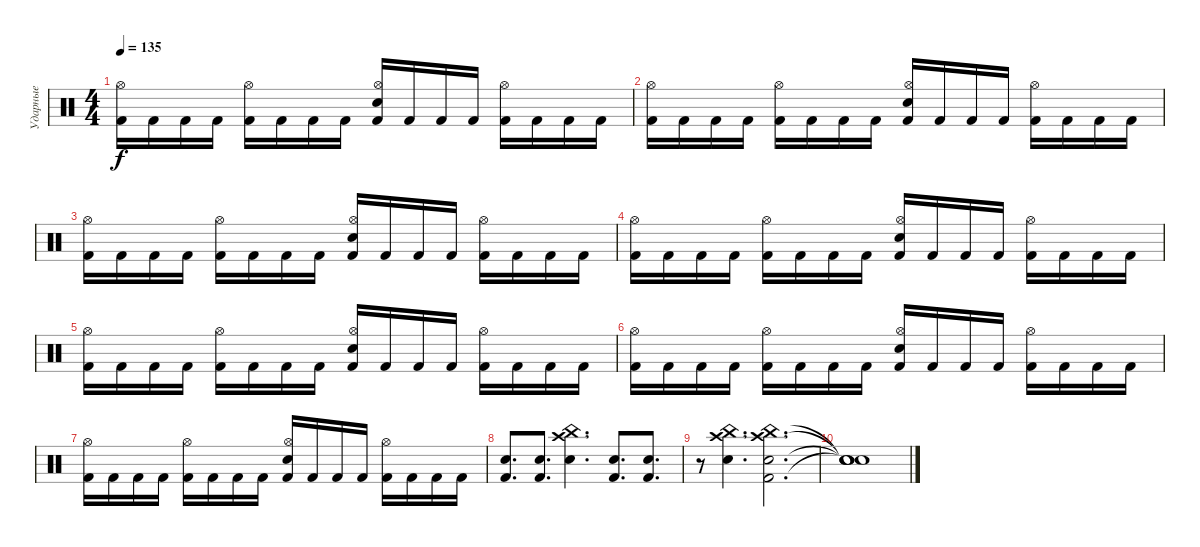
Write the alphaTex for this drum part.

\track ("Ударные" "Ударные") {instrument percussion}
\staff {score}
\articulation defaults
\ts (4 4)
\tempo 135
\clef neutral
\ks c
("Kick (hit) 2" "Hi-Hat (open)").16{dy f} "Kick (hit) 2".16 "Kick (hit) 2".16 "Kick (hit) 2".16 ("Kick (hit) 2" "Hi-Hat (open)").16 "Kick (hit) 2".16 "Kick (hit) 2".16 "Kick (hit) 2".16 ("Kick (hit) 2" "Electric Snare (hit)" "Hi-Hat (open)").16 "Kick (hit) 2".16 "Kick (hit) 2".16 "Kick (hit) 2".16 ("Kick (hit) 2" "Hi-Hat (open)").16 "Kick (hit) 2".16 "Kick (hit) 2".16 "Kick (hit) 2".16 |
("Kick (hit) 2" "Hi-Hat (open)").16 "Kick (hit) 2".16 "Kick (hit) 2".16 "Kick (hit) 2".16 ("Kick (hit) 2" "Hi-Hat (open)").16 "Kick (hit) 2".16 "Kick (hit) 2".16 "Kick (hit) 2".16 ("Kick (hit) 2" "Electric Snare (hit)" "Hi-Hat (open)").16 "Kick (hit) 2".16 "Kick (hit) 2".16 "Kick (hit) 2".16 ("Kick (hit) 2" "Hi-Hat (open)").16 "Kick (hit) 2".16 "Kick (hit) 2".16 "Kick (hit) 2".16 |
("Kick (hit) 2" "Hi-Hat (open)").16 "Kick (hit) 2".16 "Kick (hit) 2".16 "Kick (hit) 2".16 ("Kick (hit) 2" "Hi-Hat (open)").16 "Kick (hit) 2".16 "Kick (hit) 2".16 "Kick (hit) 2".16 ("Kick (hit) 2" "Electric Snare (hit)" "Hi-Hat (open)").16 "Kick (hit) 2".16 "Kick (hit) 2".16 "Kick (hit) 2".16 ("Kick (hit) 2" "Hi-Hat (open)").16 "Kick (hit) 2".16 "Kick (hit) 2".16 "Kick (hit) 2".16 |
("Kick (hit) 2" "Hi-Hat (open)").16 "Kick (hit) 2".16 "Kick (hit) 2".16 "Kick (hit) 2".16 ("Kick (hit) 2" "Hi-Hat (open)").16 "Kick (hit) 2".16 "Kick (hit) 2".16 "Kick (hit) 2".16 ("Kick (hit) 2" "Electric Snare (hit)" "Hi-Hat (open)").16 "Kick (hit) 2".16 "Kick (hit) 2".16 "Kick (hit) 2".16 ("Kick (hit) 2" "Hi-Hat (open)").16 "Kick (hit) 2".16 "Kick (hit) 2".16 "Kick (hit) 2".16 |
("Kick (hit) 2" "Hi-Hat (open)").16 "Kick (hit) 2".16 "Kick (hit) 2".16 "Kick (hit) 2".16 ("Kick (hit) 2" "Hi-Hat (open)").16 "Kick (hit) 2".16 "Kick (hit) 2".16 "Kick (hit) 2".16 ("Kick (hit) 2" "Electric Snare (hit)" "Hi-Hat (open)").16 "Kick (hit) 2".16 "Kick (hit) 2".16 "Kick (hit) 2".16 ("Kick (hit) 2" "Hi-Hat (open)").16 "Kick (hit) 2".16 "Kick (hit) 2".16 "Kick (hit) 2".16 |
("Kick (hit) 2" "Hi-Hat (open)").16 "Kick (hit) 2".16 "Kick (hit) 2".16 "Kick (hit) 2".16 ("Kick (hit) 2" "Hi-Hat (open)").16 "Kick (hit) 2".16 "Kick (hit) 2".16 "Kick (hit) 2".16 ("Kick (hit) 2" "Electric Snare (hit)" "Hi-Hat (open)").16 "Kick (hit) 2".16 "Kick (hit) 2".16 "Kick (hit) 2".16 ("Kick (hit) 2" "Hi-Hat (open)").16 "Kick (hit) 2".16 "Kick (hit) 2".16 "Kick (hit) 2".16 |
("Kick (hit) 2" "Hi-Hat (open)").16 "Kick (hit) 2".16 "Kick (hit) 2".16 "Kick (hit) 2".16 ("Kick (hit) 2" "Hi-Hat (open)").16 "Kick (hit) 2".16 "Kick (hit) 2".16 "Kick (hit) 2".16 ("Kick (hit) 2" "Electric Snare (hit)" "Hi-Hat (open)").16 "Kick (hit) 2".16 "Kick (hit) 2".16 "Kick (hit) 2".16 ("Kick (hit) 2" "Hi-Hat (open)").16 "Kick (hit) 2".16 "Kick (hit) 2".16 "Kick (hit) 2".16 |
("Kick (hit) 2" "Snare (hit) 2").8{d} ("Snare (hit) 2" "Kick (hit) 2").8{d} ("Electric Snare (hit)" "Crash high (hit)" "China (hit)").4{d} ("Kick (hit) 2" "Snare (hit) 2").8{d} ("Snare (hit) 2" "Kick (hit) 2").8{d} |
r.8 ("China (hit)" "Crash high (hit)" "Electric Snare (hit)").4{d} ("Kick (hit) 2" "Electric Snare (hit)" "Crash high (hit)" "China (hit)").2{d} |
("Snare (hit)"{t} "Snare (hit)"{t} "Snare (hit)"{t} "Snare (hit)"{t}).1
